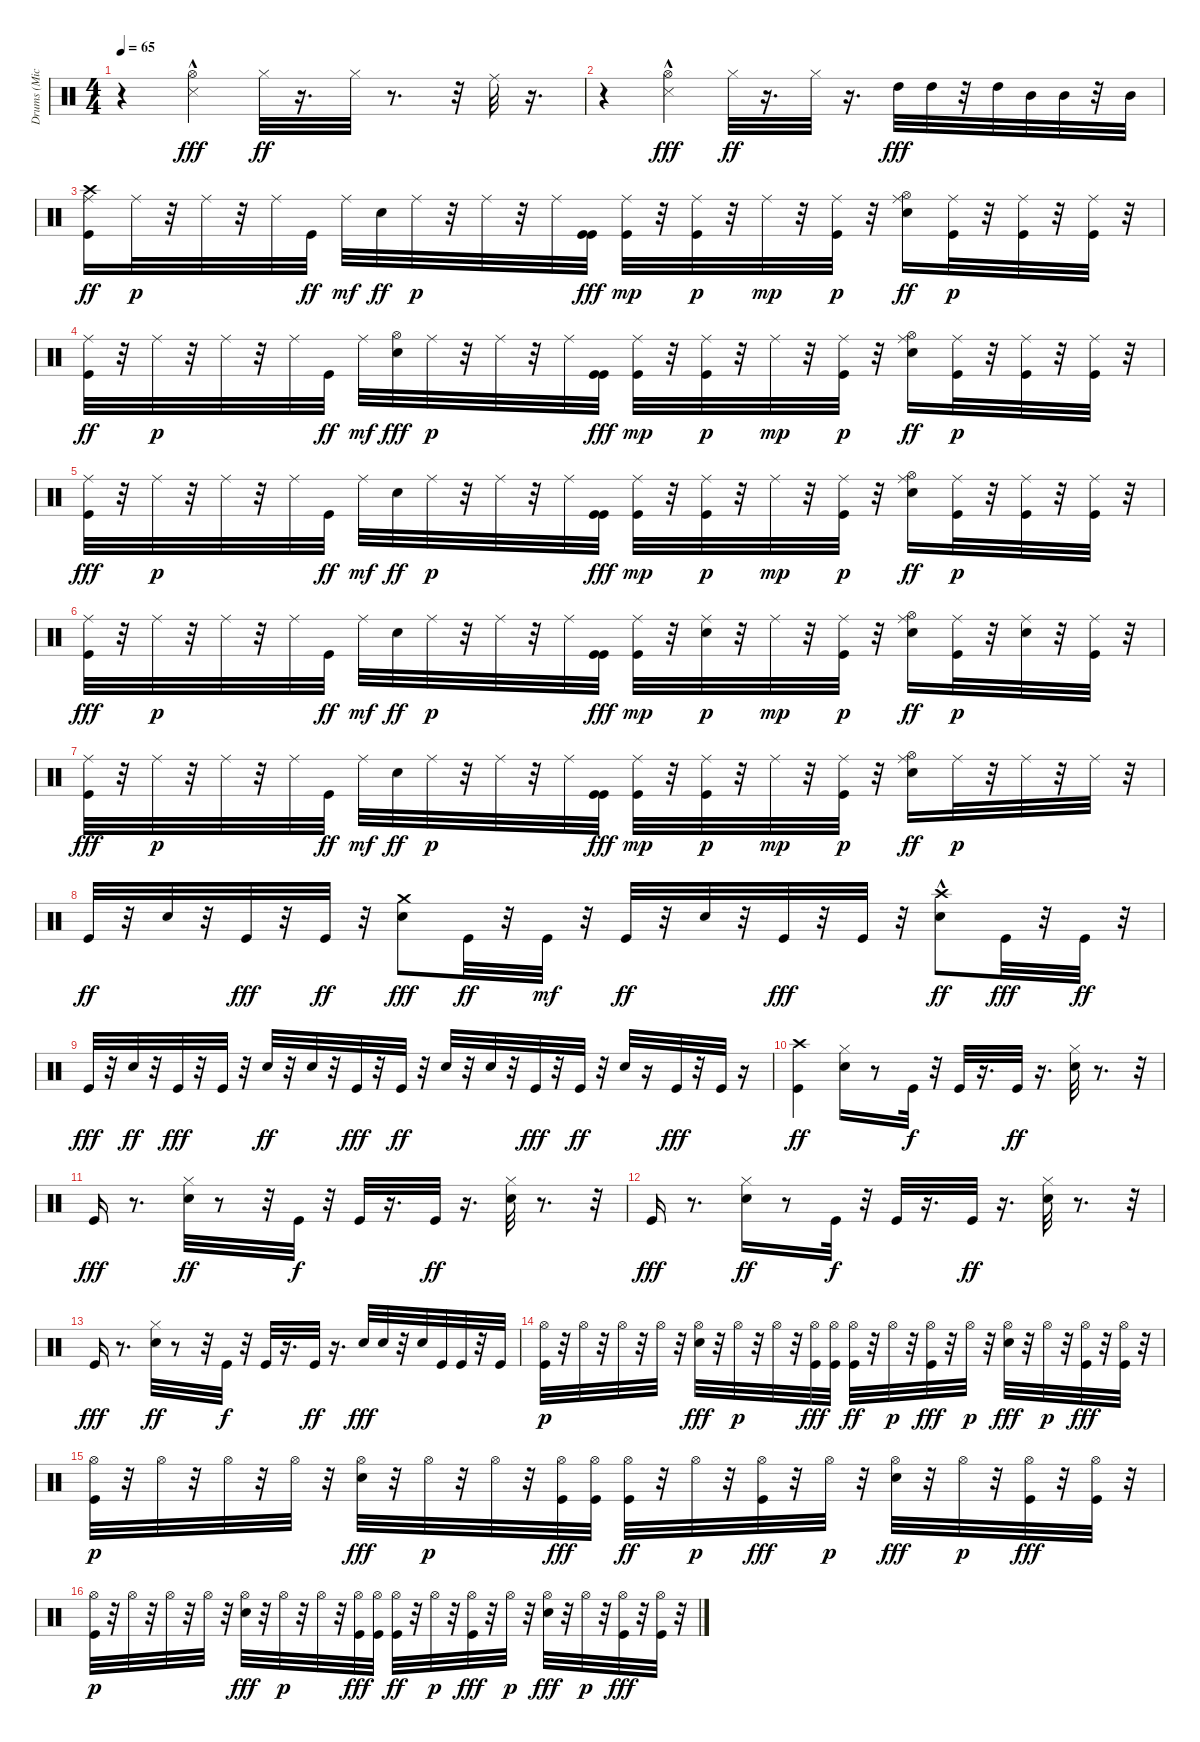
\track ("Drums (Michael Giles)" "Drums (Mic") {instrument percussion}
\staff {score}
\articulation defaults
\ts (4 4)
\tempo 65
\clef neutral
\ks c
r.4{dy ff} ("Metronome (hit)"{hac} "Hi-Hat (open)").4{dy fff} "Hi-Hat (closed)".32{dy ff} r.16{d} "Hi-Hat (closed)".32 r.8{d} r.32 "Ride (middle)".32 r.16{d} |
r.4 ("Metronome (hit)"{hac} "Hi-Hat (open)").4{dy fff} "Hi-Hat (closed)".32{dy ff} r.16{d} "Hi-Hat (closed)".32 r.16{d} "High Tom (hit)".32{dy fff} "High Tom (hit)".32 r.32 "High Tom (hit)".32 "Mid Tom (hit)".32 "Mid Tom (hit)".32 r.32 "Mid Tom (hit)".32 |
("Ride (middle)" "Kick (hit)" "Crash high (hit)").16{dy ff} "Ride (middle)".32{dy p} r.32 "Ride (middle)".32 r.32 "Ride (middle)".32 "Kick (hit)".32{dy ff} "Ride (middle)".32{dy mf} "Snare (hit) 2".32{dy ff} "Ride (middle)".32{dy p} r.32 "Ride (middle)".32 r.32 "Ride (middle)".32 ("Kick (hit)" "Kick (hit)").32{dy fff} ("Kick (hit)" "Ride (middle)").32{dy mp} r.32 ("Kick (hit)" "Ride (middle)").32{dy p} r.32 "Ride (middle)".32{dy mp} r.32 ("Ride (middle)" "Kick (hit)").32{dy p} r.32 ("Ride (middle)" "Hi-Hat (open)" "Snare (hit) 2").16{dy ff} ("Ride (middle)" "Kick (hit)").32{dy p} r.32 ("Ride (middle)" "Kick (hit)").32 r.32 ("Kick (hit)" "Ride (middle)").32 r.32 |
("Kick (hit)" "Ride (middle)").32{dy ff} r.32 "Ride (middle)".32{dy p} r.32 "Ride (middle)".32 r.32 "Ride (middle)".32 "Kick (hit)".32{dy ff} "Ride (middle)".32{dy mf} ("Snare (hit) 2" "Hi-Hat (open)").32{dy fff} "Ride (middle)".32{dy p} r.32 "Ride (middle)".32 r.32 "Ride (middle)".32 ("Kick (hit)" "Kick (hit)").32{dy fff} ("Kick (hit)" "Ride (middle)").32{dy mp} r.32 ("Kick (hit)" "Ride (middle)").32{dy p} r.32 "Ride (middle)".32{dy mp} r.32 ("Kick (hit)" "Ride (middle)").32{dy p} r.32 ("Hi-Hat (open)" "Ride (middle)" "Snare (hit) 2").16{dy ff} ("Ride (middle)" "Kick (hit)").32{dy p} r.32 ("Ride (middle)" "Kick (hit)").32 r.32 ("Kick (hit)" "Ride (middle)").32 r.32 |
("Ride (middle)" "Kick (hit)").32{dy fff} r.32 "Ride (middle)".32{dy p} r.32 "Ride (middle)".32 r.32 "Ride (middle)".32 "Kick (hit)".32{dy ff} "Ride (middle)".32{dy mf} "Snare (hit) 2".32{dy ff} "Ride (middle)".32{dy p} r.32 "Ride (middle)".32 r.32 "Ride (middle)".32 ("Kick (hit)" "Kick (hit)").32{dy fff} ("Kick (hit)" "Ride (middle)").32{dy mp} r.32 ("Kick (hit)" "Ride (middle)").32{dy p} r.32 "Ride (middle)".32{dy mp} r.32 ("Ride (middle)" "Kick (hit)").32{dy p} r.32 ("Ride (middle)" "Hi-Hat (open)" "Snare (hit) 2").16{dy ff} ("Ride (middle)" "Kick (hit)").32{dy p} r.32 ("Ride (middle)" "Kick (hit)").32 r.32 ("Kick (hit)" "Ride (middle)").32 r.32 |
("Ride (middle)" "Kick (hit)").32{dy fff} r.32 "Ride (middle)".32{dy p} r.32 "Ride (middle)".32 r.32 "Ride (middle)".32 "Kick (hit)".32{dy ff} "Ride (middle)".32{dy mf} "Snare (hit) 2".32{dy ff} "Ride (middle)".32{dy p} r.32 "Ride (middle)".32 r.32 "Ride (middle)".32 ("Kick (hit)" "Kick (hit)").32{dy fff} ("Kick (hit)" "Ride (middle)").32{dy mp} r.32 ("Snare (hit) 2" "Ride (middle)").32{dy p} r.32 "Ride (middle)".32{dy mp} r.32 ("Ride (middle)" "Kick (hit)").32{dy p} r.32 ("Ride (middle)" "Hi-Hat (open)" "Snare (hit) 2").16{dy ff} ("Ride (middle)" "Kick (hit)").32{dy p} r.32 ("Ride (middle)" "Snare (hit) 2").32 r.32 ("Kick (hit)" "Ride (middle)").32 r.32 |
("Ride (middle)" "Kick (hit)").32{dy fff} r.32 "Ride (middle)".32{dy p} r.32 "Ride (middle)".32 r.32 "Ride (middle)".32 "Kick (hit)".32{dy ff} "Ride (middle)".32{dy mf} "Snare (hit) 2".32{dy ff} "Ride (middle)".32{dy p} r.32 "Ride (middle)".32 r.32 "Ride (middle)".32 ("Kick (hit)" "Kick (hit)").32{dy fff} ("Kick (hit)" "Ride (middle)").32{dy mp} r.32 ("Kick (hit)" "Ride (middle)").32{dy p} r.32 "Ride (middle)".32{dy mp} r.32 ("Ride (middle)" "Kick (hit)").32{dy p} r.32 ("Ride (middle)" "Hi-Hat (open)" "Snare (hit) 2").16{dy ff} "Ride (middle)".32{dy p} r.32 "Ride (middle)".32 r.32 "Ride (middle)".32 r.32 |
"Kick (hit)".32{dy ff} r.32 "Snare (hit) 2".32 r.32 "Kick (hit)".32{dy fff} r.32 "Kick (hit)".32{dy ff} r.32 ("Snare (hit) 2" "Crash medium (hit)").8{dy fff} "Kick (hit)".32{dy ff} r.32 "Kick (hit)".32{dy mf} r.32 "Kick (hit)".32{dy ff} r.32 "Snare (hit) 2".32 r.32 "Kick (hit)".32{dy fff} r.32 "Kick (hit)".32 r.32 ("Snare (hit) 2" "Crash high (hit)"{hac}).8{dy ff} "Kick (hit)".32{dy fff} r.32 "Kick (hit)".32{dy ff} r.32 |
"Kick (hit)".32{dy fff} r.32 "Snare (hit) 2".32{dy ff} r.32 "Kick (hit)".32{dy fff} r.32 "Kick (hit)".32 r.32 "Snare (hit) 2".32{dy ff} r.32 "Snare (hit) 2".32 r.32 "Kick (hit)".32{dy fff} r.32 "Kick (hit)".32{dy ff} r.32 "Snare (hit) 2".32 r.32 "Snare (hit) 2".32 r.32 "Kick (hit)".32{dy fff} r.32 "Kick (hit)".32{dy ff} r.32 "Snare (hit) 2".32 r.16 "Kick (hit)".32{dy fff} r.32 "Kick (hit)".32 r.16 |
("Kick (hit)" "Crash high (hit)").4{dy ff} ("Snare (hit) 2" "Hi-Hat (closed)").16 r.8 "Kick (hit)".32{dy f} r.32 "Kick (hit)".32 r.16{d} "Kick (hit)".32{dy ff} r.16{d} ("Snare (hit) 2" "Hi-Hat (closed)").32 r.8{d} r.32 |
"Kick (hit)".16{dy fff} r.8{d} ("Hi-Hat (closed)" "Snare (hit) 2").32{dy ff} r.8 r.32 "Kick (hit)".32{dy f} r.32 "Kick (hit)".32 r.16{d} "Kick (hit)".32{dy ff} r.16{d} ("Hi-Hat (closed)" "Snare (hit) 2").32 r.8{d} r.32 |
"Kick (hit)".16{dy fff} r.8{d} ("Snare (hit) 2" "Hi-Hat (closed)").16{dy ff} r.8 "Kick (hit)".32{dy f} r.32 "Kick (hit)".32 r.16{d} "Kick (hit)".32{dy ff} r.16{d} ("Snare (hit) 2" "Hi-Hat (closed)").32 r.8{d} r.32 |
"Kick (hit)".16{dy fff} r.8{d} ("Hi-Hat (closed)" "Snare (hit) 2").32{dy ff} r.8 r.32 "Kick (hit)".32{dy f} r.32 "Kick (hit)".32 r.16{d} "Kick (hit)".32{dy ff} r.16{d} "Snare (hit) 2".32{dy fff} "Snare (hit) 2".32 r.32 "Snare (hit) 2".32 "Kick (hit)".32 "Kick (hit)".32 r.32 "Kick (hit)".32 |
("Kick (hit)" "Hi-Hat (open)").32{dy p} r.32 "Hi-Hat (open)".32 r.32 "Hi-Hat (open)".32 r.32 "Hi-Hat (open)".32 r.32 ("Hi-Hat (open)" "Snare (hit) 2").32{dy fff} r.32 "Hi-Hat (open)".32{dy p} r.32 "Hi-Hat (open)".32 r.32 ("Hi-Hat (open)" "Kick (hit)").32{dy fff} ("Hi-Hat (open)" "Kick (hit)").32 ("Hi-Hat (open)" "Kick (hit)").32{dy ff} r.32 "Hi-Hat (open)".32{dy p} r.32 ("Hi-Hat (open)" "Kick (hit)").32{dy fff} r.32 "Hi-Hat (open)".32{dy p} r.32 ("Hi-Hat (open)" "Snare (hit) 2").32{dy fff} r.32 "Hi-Hat (open)".32{dy p} r.32 ("Hi-Hat (open)" "Kick (hit)").32{dy fff} r.32 ("Hi-Hat (open)" "Kick (hit)").32 r.32 |
("Kick (hit)" "Hi-Hat (open)").32{dy p} r.32 "Hi-Hat (open)".32 r.32 "Hi-Hat (open)".32 r.32 "Hi-Hat (open)".32 r.32 ("Hi-Hat (open)" "Snare (hit) 2").32{dy fff} r.32 "Hi-Hat (open)".32{dy p} r.32 "Hi-Hat (open)".32 r.32 ("Hi-Hat (open)" "Kick (hit)").32{dy fff} ("Hi-Hat (open)" "Kick (hit)").32 ("Hi-Hat (open)" "Kick (hit)").32{dy ff} r.32 "Hi-Hat (open)".32{dy p} r.32 ("Hi-Hat (open)" "Kick (hit)").32{dy fff} r.32 "Hi-Hat (open)".32{dy p} r.32 ("Hi-Hat (open)" "Snare (hit) 2").32{dy fff} r.32 "Hi-Hat (open)".32{dy p} r.32 ("Hi-Hat (open)" "Kick (hit)").32{dy fff} r.32 ("Hi-Hat (open)" "Kick (hit)").32 r.32 |
("Kick (hit)" "Hi-Hat (open)").32{dy p} r.32 "Hi-Hat (open)".32 r.32 "Hi-Hat (open)".32 r.32 "Hi-Hat (open)".32 r.32 ("Hi-Hat (open)" "Snare (hit) 2").32{dy fff} r.32 "Hi-Hat (open)".32{dy p} r.32 "Hi-Hat (open)".32 r.32 ("Hi-Hat (open)" "Kick (hit)").32{dy fff} ("Hi-Hat (open)" "Kick (hit)").32 ("Hi-Hat (open)" "Kick (hit)").32{dy ff} r.32 "Hi-Hat (open)".32{dy p} r.32 ("Hi-Hat (open)" "Kick (hit)").32{dy fff} r.32 "Hi-Hat (open)".32{dy p} r.32 ("Hi-Hat (open)" "Snare (hit) 2").32{dy fff} r.32 "Hi-Hat (open)".32{dy p} r.32 ("Hi-Hat (open)" "Kick (hit)").32{dy fff} r.32 ("Hi-Hat (open)" "Kick (hit)").32 r.32
